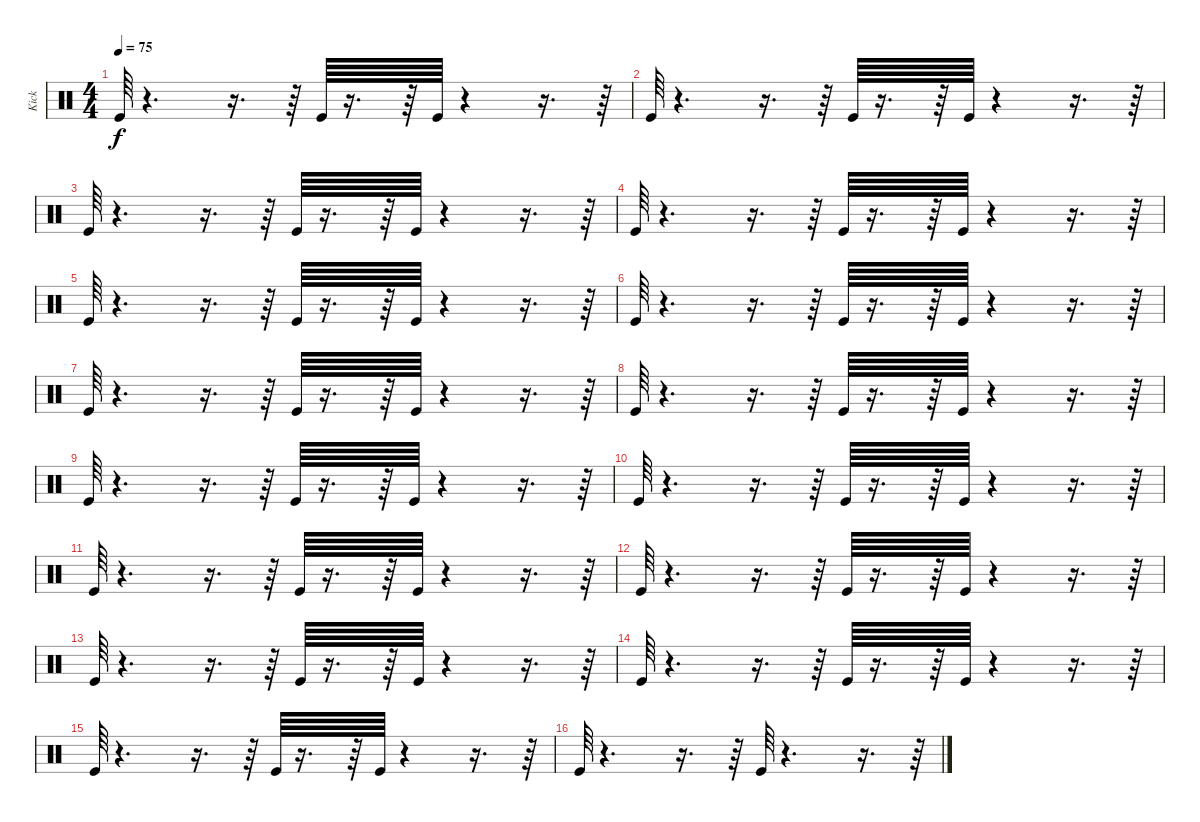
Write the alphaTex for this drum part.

\track ("Kick" "Kick") {instrument percussion}
\staff {score}
\articulation defaults
\ts (4 4)
\tempo 75
\clef neutral
\ks c "Kick (hit)".64{dy f}
r.4{d} r.16{d} r.64 "Kick (hit)".64 r.16{d} r.64 "Kick (hit)".64 r.4 r.16{d} r.64 |
"Kick (hit)".64 r.4{d} r.16{d} r.64 "Kick (hit)".64 r.16{d} r.64 "Kick (hit)".64 r.4 r.16{d} r.64 |
"Kick (hit)".64 r.4{d} r.16{d} r.64 "Kick (hit)".64 r.16{d} r.64 "Kick (hit)".64 r.4 r.16{d} r.64 |
"Kick (hit)".64 r.4{d} r.16{d} r.64 "Kick (hit)".64 r.16{d} r.64 "Kick (hit)".64 r.4 r.16{d} r.64 |
"Kick (hit)".64 r.4{d} r.16{d} r.64 "Kick (hit)".64 r.16{d} r.64 "Kick (hit)".64 r.4 r.16{d} r.64 |
"Kick (hit)".64 r.4{d} r.16{d} r.64 "Kick (hit)".64 r.16{d} r.64 "Kick (hit)".64 r.4 r.16{d} r.64 |
"Kick (hit)".64 r.4{d} r.16{d} r.64 "Kick (hit)".64 r.16{d} r.64 "Kick (hit)".64 r.4 r.16{d} r.64 |
"Kick (hit)".64 r.4{d} r.16{d} r.64 "Kick (hit)".64 r.16{d} r.64 "Kick (hit)".64 r.4 r.16{d} r.64 |
"Kick (hit)".64 r.4{d} r.16{d} r.64 "Kick (hit)".64 r.16{d} r.64 "Kick (hit)".64 r.4 r.16{d} r.64 |
"Kick (hit)".64 r.4{d} r.16{d} r.64 "Kick (hit)".64 r.16{d} r.64 "Kick (hit)".64 r.4 r.16{d} r.64 |
"Kick (hit)".64 r.4{d} r.16{d} r.64 "Kick (hit)".64 r.16{d} r.64 "Kick (hit)".64 r.4 r.16{d} r.64 |
"Kick (hit)".64 r.4{d} r.16{d} r.64 "Kick (hit)".64 r.16{d} r.64 "Kick (hit)".64 r.4 r.16{d} r.64 |
"Kick (hit)".64 r.4{d} r.16{d} r.64 "Kick (hit)".64 r.16{d} r.64 "Kick (hit)".64 r.4 r.16{d} r.64 |
"Kick (hit)".64 r.4{d} r.16{d} r.64 "Kick (hit)".64 r.16{d} r.64 "Kick (hit)".64 r.4 r.16{d} r.64 |
"Kick (hit)".64 r.4{d} r.16{d} r.64 "Kick (hit)".64 r.16{d} r.64 "Kick (hit)".64 r.4 r.16{d} r.64 |
"Kick (hit)".64 r.4{d} r.16{d} r.64 "Kick (hit)".64 r.4{d} r.16{d} r.64
